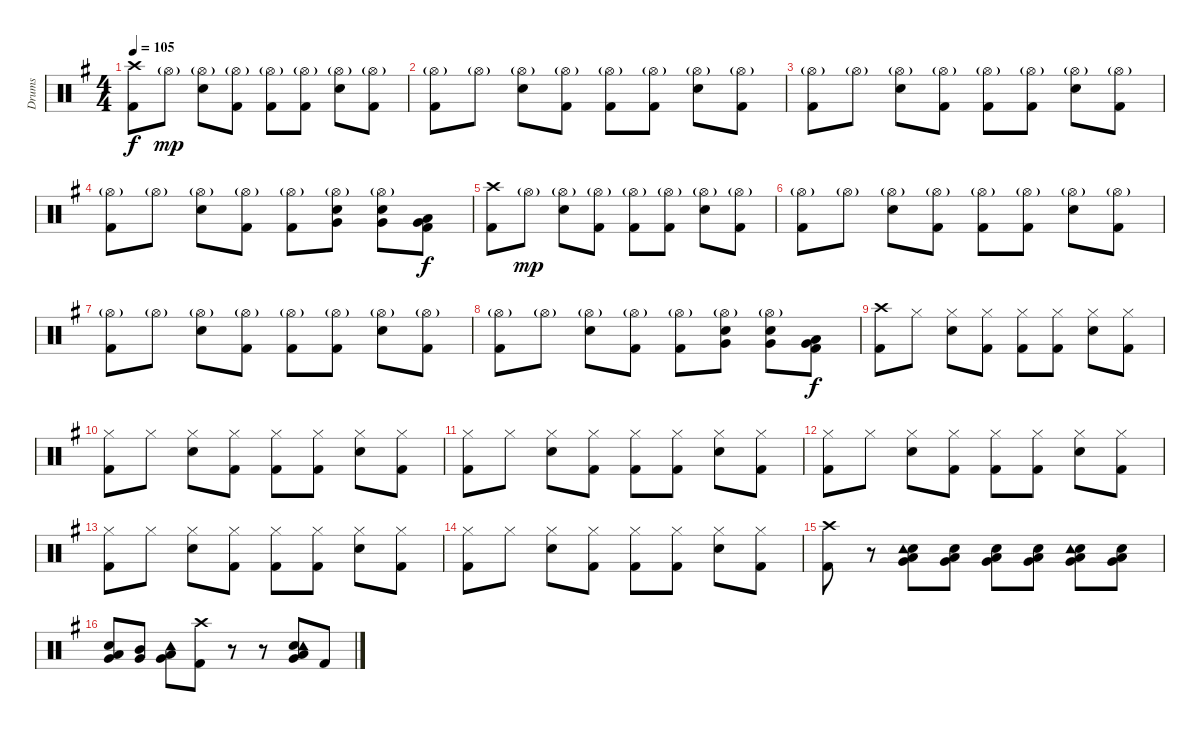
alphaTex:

\track ("Drums" "Drums") {instrument percussion}
\staff {score}
\articulation defaults
\ts (4 4)
\tempo 105
\clef neutral
\ks g
("Kick (hit) 2" "Crash high (hit)").8{dy f} "Hi-Hat (open)"{g}.8{dy mp} ("Hi-Hat (open)"{g} "Snare (hit) 2").8 ("Hi-Hat (open)"{g} "Kick (hit) 2").8 ("Hi-Hat (open)"{g} "Kick (hit) 2").8 ("Hi-Hat (open)"{g} "Kick (hit) 2").8 ("Hi-Hat (open)"{g} "Snare (hit) 2").8 ("Hi-Hat (open)"{g} "Kick (hit) 2").8 |
("Hi-Hat (open)"{g} "Kick (hit) 2").8 "Hi-Hat (open)"{g}.8 ("Hi-Hat (open)"{g} "Snare (hit) 2").8 ("Hi-Hat (open)"{g} "Kick (hit) 2").8 ("Hi-Hat (open)"{g} "Kick (hit) 2").8 ("Hi-Hat (open)"{g} "Kick (hit) 2").8 ("Hi-Hat (open)"{g} "Snare (hit) 2").8 ("Hi-Hat (open)"{g} "Kick (hit) 2").8 |
("Hi-Hat (open)"{g} "Kick (hit) 2").8 "Hi-Hat (open)"{g}.8 ("Hi-Hat (open)"{g} "Snare (hit) 2").8 ("Hi-Hat (open)"{g} "Kick (hit) 2").8 ("Hi-Hat (open)"{g} "Kick (hit) 2").8 ("Hi-Hat (open)"{g} "Kick (hit) 2").8 ("Hi-Hat (open)"{g} "Snare (hit) 2").8 ("Hi-Hat (open)"{g} "Kick (hit) 2").8 |
("Hi-Hat (open)"{g} "Kick (hit) 2").8 "Hi-Hat (open)"{g}.8 ("Hi-Hat (open)"{g} "Snare (hit) 2").8 ("Hi-Hat (open)"{g} "Kick (hit) 2").8 ("Hi-Hat (open)"{g} "Kick (hit) 2").8 ("Hi-Hat (open)"{g} "Snare (hit) 2" "Very Low Tom (hit)").8 ("Hi-Hat (open)"{g} "Snare (hit) 2" "Very Low Tom (hit)").8 ("Kick (hit) 2" "Low Tom (hit)" "Very Low Tom (hit)").8{dy f} |
("Kick (hit) 2" "Crash high (hit)").8 "Hi-Hat (open)"{g}.8{dy mp} ("Hi-Hat (open)"{g} "Snare (hit) 2").8 ("Hi-Hat (open)"{g} "Kick (hit) 2").8 ("Hi-Hat (open)"{g} "Kick (hit) 2").8 ("Hi-Hat (open)"{g} "Kick (hit) 2").8 ("Hi-Hat (open)"{g} "Snare (hit) 2").8 ("Hi-Hat (open)"{g} "Kick (hit) 2").8 |
("Hi-Hat (open)"{g} "Kick (hit) 2").8 "Hi-Hat (open)"{g}.8 ("Hi-Hat (open)"{g} "Snare (hit) 2").8 ("Hi-Hat (open)"{g} "Kick (hit) 2").8 ("Hi-Hat (open)"{g} "Kick (hit) 2").8 ("Hi-Hat (open)"{g} "Kick (hit) 2").8 ("Hi-Hat (open)"{g} "Snare (hit) 2").8 ("Hi-Hat (open)"{g} "Kick (hit) 2").8 |
("Hi-Hat (open)"{g} "Kick (hit) 2").8 "Hi-Hat (open)"{g}.8 ("Hi-Hat (open)"{g} "Snare (hit) 2").8 ("Hi-Hat (open)"{g} "Kick (hit) 2").8 ("Hi-Hat (open)"{g} "Kick (hit) 2").8 ("Hi-Hat (open)"{g} "Kick (hit) 2").8 ("Hi-Hat (open)"{g} "Snare (hit) 2").8 ("Hi-Hat (open)"{g} "Kick (hit) 2").8 |
("Hi-Hat (open)"{g} "Kick (hit) 2").8 "Hi-Hat (open)"{g}.8 ("Hi-Hat (open)"{g} "Snare (hit) 2").8 ("Hi-Hat (open)"{g} "Kick (hit) 2").8 ("Hi-Hat (open)"{g} "Kick (hit) 2").8 ("Hi-Hat (open)"{g} "Snare (hit) 2" "Very Low Tom (hit)").8 ("Hi-Hat (open)"{g} "Snare (hit) 2" "Very Low Tom (hit)").8 ("Kick (hit) 2" "Low Tom (hit)" "Very Low Tom (hit)").8{dy f} |
("Kick (hit) 2" "Crash high (hit)").8 "Hi-Hat (closed)".8 ("Hi-Hat (closed)" "Snare (hit) 2").8 ("Hi-Hat (closed)" "Kick (hit) 2").8 ("Hi-Hat (closed)" "Kick (hit) 2").8 ("Hi-Hat (closed)" "Kick (hit) 2").8 ("Hi-Hat (closed)" "Snare (hit) 2").8 ("Hi-Hat (closed)" "Kick (hit) 2").8 |
("Hi-Hat (closed)" "Kick (hit) 2").8 "Hi-Hat (closed)".8 ("Hi-Hat (closed)" "Snare (hit) 2").8 ("Hi-Hat (closed)" "Kick (hit) 2").8 ("Hi-Hat (closed)" "Kick (hit) 2").8 ("Hi-Hat (closed)" "Kick (hit) 2").8 ("Hi-Hat (closed)" "Snare (hit) 2").8 ("Hi-Hat (closed)" "Kick (hit) 2").8 |
("Hi-Hat (closed)" "Kick (hit) 2").8 "Hi-Hat (closed)".8 ("Hi-Hat (closed)" "Snare (hit) 2").8 ("Hi-Hat (closed)" "Kick (hit) 2").8 ("Hi-Hat (closed)" "Kick (hit) 2").8 ("Hi-Hat (closed)" "Kick (hit) 2").8 ("Hi-Hat (closed)" "Snare (hit) 2").8 ("Hi-Hat (closed)" "Kick (hit) 2").8 |
("Hi-Hat (closed)" "Kick (hit) 2").8 "Hi-Hat (closed)".8 ("Hi-Hat (closed)" "Snare (hit) 2").8 ("Hi-Hat (closed)" "Kick (hit) 2").8 ("Hi-Hat (closed)" "Kick (hit) 2").8 ("Hi-Hat (closed)" "Kick (hit) 2").8 ("Hi-Hat (closed)" "Snare (hit) 2").8 ("Hi-Hat (closed)" "Kick (hit) 2").8 |
("Hi-Hat (closed)" "Kick (hit) 2").8 "Hi-Hat (closed)".8 ("Hi-Hat (closed)" "Snare (hit) 2").8 ("Hi-Hat (closed)" "Kick (hit) 2").8 ("Hi-Hat (closed)" "Kick (hit) 2").8 ("Hi-Hat (closed)" "Kick (hit) 2").8 ("Hi-Hat (closed)" "Snare (hit) 2").8 ("Hi-Hat (closed)" "Kick (hit) 2").8 |
("Hi-Hat (closed)" "Kick (hit) 2").8 "Hi-Hat (closed)".8 ("Hi-Hat (closed)" "Snare (hit) 2").8 ("Hi-Hat (closed)" "Kick (hit) 2").8 ("Hi-Hat (closed)" "Kick (hit) 2").8 ("Hi-Hat (closed)" "Kick (hit) 2").8 ("Hi-Hat (closed)" "Snare (hit) 2").8 ("Hi-Hat (closed)" "Kick (hit) 2").8 |
("Kick (hit) 2" "Crash high (hit)").8 r.8 ("Snare (hit) 2" "Low Tom (hit)" "Very Low Tom (hit)" "Tambourine (hit)").8 ("Snare (hit) 2" "Low Tom (hit)" "Very Low Tom (hit)").8 ("Snare (hit) 2" "Low Tom (hit)" "Very Low Tom (hit)").8 ("Snare (hit) 2" "Low Tom (hit)" "Very Low Tom (hit)").8 ("Snare (hit) 2" "Low Tom (hit)" "Very Low Tom (hit)" "Tambourine (hit)").8 ("Snare (hit) 2" "Low Tom (hit)" "Very Low Tom (hit)").8 |
("Snare (hit) 2" "Low Tom (hit)" "Very Low Tom (hit)").8 ("Mid Tom (hit)" "Very Low Tom (hit)").8 ("Low Tom (hit)" "Very Low Tom (hit)" "Tambourine (hit)").8 ("Kick (hit) 2" "Crash high (hit)").8 r.8 r.8 ("Snare (hit) 2" "Low Tom (hit)" "Very Low Tom (hit)" "Tambourine (hit)").8 "Kick (hit) 2".8
